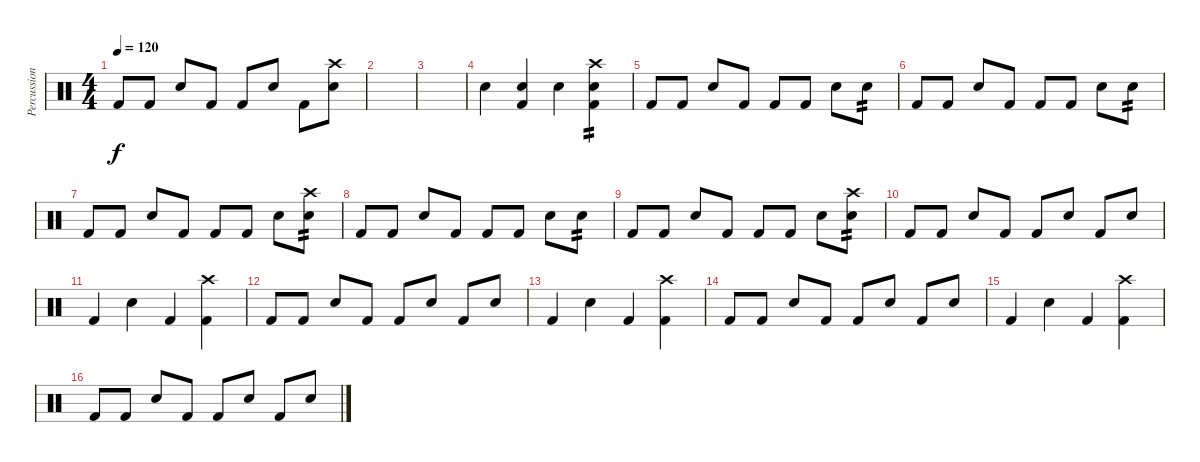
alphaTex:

\track ("Percussion" "Percussion") {instrument percussion}
\staff {score}
\articulation defaults
\ts (4 4)
\tempo 120
\clef neutral
\ks c "Kick (hit) 2".8{dy f} "Kick (hit) 2".8 "Snare (hit) 2".8 "Kick (hit) 2".8 "Kick (hit) 2".8 "Snare (hit) 2".8 "Kick (hit) 2".8
("Snare (hit) 2" "Crash high (hit)").8 |
|
|
"Snare (hit) 2".4 ("Kick (hit) 2" "Snare (hit) 2").4 "Snare (hit) 2".4 ("Kick (hit) 2" "Snare (hit) 2" "Crash high (hit)").4{tp 2} |
"Kick (hit) 2".8 "Kick (hit) 2".8 "Snare (hit) 2".8 "Kick (hit) 2".8 "Kick (hit) 2".8 "Kick (hit) 2".8 "Snare (hit) 2".8 "Snare (hit) 2".8{tp 2} |
"Kick (hit) 2".8 "Kick (hit) 2".8 "Snare (hit) 2".8 "Kick (hit) 2".8 "Kick (hit) 2".8 "Kick (hit) 2".8 "Snare (hit) 2".8 "Snare (hit) 2".8{tp 2} |
"Kick (hit) 2".8 "Kick (hit) 2".8 "Snare (hit) 2".8 "Kick (hit) 2".8 "Kick (hit) 2".8 "Kick (hit) 2".8 "Snare (hit) 2".8 ("Crash high (hit)" "Snare (hit) 2").8{tp 2} |
"Kick (hit) 2".8 "Kick (hit) 2".8 "Snare (hit) 2".8 "Kick (hit) 2".8 "Kick (hit) 2".8 "Kick (hit) 2".8 "Snare (hit) 2".8 "Snare (hit) 2".8{tp 2} |
"Kick (hit) 2".8 "Kick (hit) 2".8 "Snare (hit) 2".8 "Kick (hit) 2".8 "Kick (hit) 2".8 "Kick (hit) 2".8 "Snare (hit) 2".8 ("Crash high (hit)" "Snare (hit) 2").8{tp 2} |
"Kick (hit) 2".8 "Kick (hit) 2".8 "Snare (hit) 2".8 "Kick (hit) 2".8 "Kick (hit) 2".8 "Snare (hit) 2".8 "Kick (hit) 2".8 "Snare (hit) 2".8 |
"Kick (hit) 2".4 "Snare (hit) 2".4 "Kick (hit) 2".4 ("Kick (hit) 2" "Crash high (hit)").4 |
"Kick (hit) 2".8 "Kick (hit) 2".8 "Snare (hit) 2".8 "Kick (hit) 2".8 "Kick (hit) 2".8 "Snare (hit) 2".8 "Kick (hit) 2".8 "Snare (hit) 2".8 |
"Kick (hit) 2".4 "Snare (hit) 2".4 "Kick (hit) 2".4 ("Kick (hit) 2" "Crash high (hit)").4 |
"Kick (hit) 2".8 "Kick (hit) 2".8 "Snare (hit) 2".8 "Kick (hit) 2".8 "Kick (hit) 2".8 "Snare (hit) 2".8 "Kick (hit) 2".8 "Snare (hit) 2".8 |
"Kick (hit) 2".4 "Snare (hit) 2".4 "Kick (hit) 2".4 ("Kick (hit) 2" "Crash high (hit)").4 |
"Kick (hit) 2".8 "Kick (hit) 2".8 "Snare (hit) 2".8 "Kick (hit) 2".8 "Kick (hit) 2".8 "Snare (hit) 2".8 "Kick (hit) 2".8 "Snare (hit) 2".8
